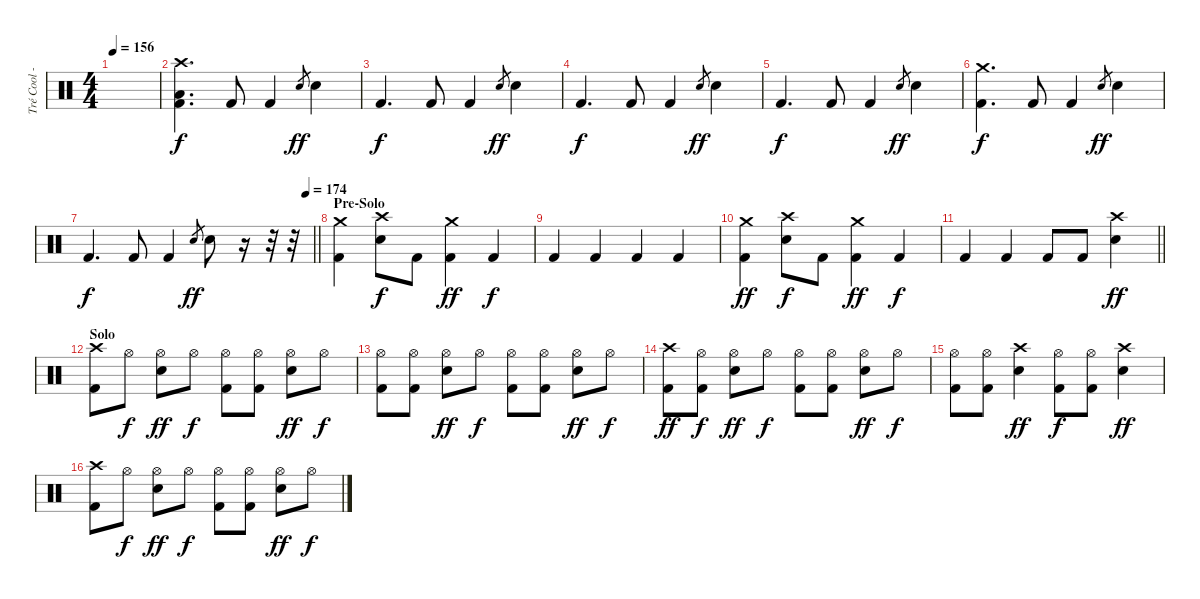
\track ("Tré Cool - Drums" "Tré Cool -") {instrument percussion}
\staff {score}
\articulation defaults
\ts (4 4)
\tempo 156
\clef neutral
\ks c
|
("Crash high (hit)" "Low Tom (hit)" "Kick (hit) 2").4{d} "Kick (hit) 2".8{dy f} "Kick (hit) 2".4 "Electric Snare (hit)".8{gr dy ff} "Electric Snare (hit)".4 |
"Kick (hit) 2".4{d dy f} "Kick (hit) 2".8 "Kick (hit) 2".4 "Electric Snare (hit)".8{gr dy ff} "Electric Snare (hit)".4 |
"Kick (hit) 2".4{d dy f} "Kick (hit) 2".8 "Kick (hit) 2".4 "Electric Snare (hit)".8{gr dy ff} "Electric Snare (hit)".4 |
"Kick (hit) 2".4{d dy f} "Kick (hit) 2".8 "Kick (hit) 2".4 "Electric Snare (hit)".8{gr dy ff} "Electric Snare (hit)".4 |
("Crash medium (hit)" "Kick (hit) 2").4{d dy f} "Kick (hit) 2".8 "Kick (hit) 2".4 "Electric Snare (hit)".8{gr dy ff} "Electric Snare (hit)".4 |
\tempo (174 0.96875)
\barLineRight lightlight "Kick (hit) 2".4{d dy f} "Kick (hit) 2".8 "Kick (hit) 2".4 "Electric Snare (hit)".8{gr dy ff} "Electric Snare (hit)".8
r.16 r.32 r.32 |
\section ("" "Pre-Solo")
("Crash medium (hit)" "Kick (hit) 2").4 ("Crash high (hit)" "Electric Snare (hit)").8{dy f} "Kick (hit) 2".8 ("Crash medium (hit)" "Kick (hit) 2").4{dy ff} "Kick (hit) 2".4{dy f} |
"Kick (hit) 2".4 "Kick (hit) 2".4 "Kick (hit) 2".4 "Kick (hit) 2".4 |
("Crash medium (hit)" "Kick (hit) 2").4{dy ff} ("Crash high (hit)" "Electric Snare (hit)").8{dy f} "Kick (hit) 2".8 ("Crash medium (hit)" "Kick (hit) 2").4{dy ff} "Kick (hit) 2".4{dy f} |
\barLineRight lightlight "Kick (hit) 2".4 "Kick (hit) 2".4 "Kick (hit) 2".8 "Kick (hit) 2".8
("Crash high (hit)" "Electric Snare (hit)").4{dy ff} |
\section ("" "Solo")
("Crash high (hit)" "Kick (hit) 2").8 "Hi-Hat (open)".8{dy f} ("Hi-Hat (open)" "Electric Snare (hit)").8{dy ff} "Hi-Hat (open)".8{dy f} ("Hi-Hat (open)" "Kick (hit) 2").8 ("Hi-Hat (open)" "Kick (hit) 2").8 ("Hi-Hat (open)" "Electric Snare (hit)").8{dy ff} "Hi-Hat (open)".8{dy f} |
("Hi-Hat (open)" "Kick (hit) 2").8 ("Hi-Hat (open)" "Kick (hit) 2").8 ("Hi-Hat (open)" "Electric Snare (hit)").8{dy ff} "Hi-Hat (open)".8{dy f} ("Hi-Hat (open)" "Kick (hit) 2").8 ("Hi-Hat (open)" "Kick (hit) 2").8 ("Hi-Hat (open)" "Electric Snare (hit)").8{dy ff} "Hi-Hat (open)".8{dy f} |
("Crash high (hit)" "Kick (hit) 2").8{dy ff} ("Hi-Hat (open)" "Kick (hit) 2").8{dy f} ("Hi-Hat (open)" "Electric Snare (hit)").8{dy ff} "Hi-Hat (open)".8{dy f} ("Hi-Hat (open)" "Kick (hit) 2").8 ("Hi-Hat (open)" "Kick (hit) 2").8 ("Hi-Hat (open)" "Electric Snare (hit)").8{dy ff} "Hi-Hat (open)".8{dy f} |
("Hi-Hat (open)" "Kick (hit) 2").8 ("Hi-Hat (open)" "Kick (hit) 2").8 ("Crash high (hit)" "Electric Snare (hit)").4{dy ff} ("Hi-Hat (open)" "Kick (hit) 2").8{dy f} ("Hi-Hat (open)" "Kick (hit) 2").8 ("Crash high (hit)" "Electric Snare (hit)").4{dy ff} |
("Crash high (hit)" "Kick (hit) 2").8 "Hi-Hat (open)".8{dy f} ("Hi-Hat (open)" "Electric Snare (hit)").8{dy ff} "Hi-Hat (open)".8{dy f} ("Hi-Hat (open)" "Kick (hit) 2").8 ("Hi-Hat (open)" "Kick (hit) 2").8 ("Hi-Hat (open)" "Electric Snare (hit)").8{dy ff} "Hi-Hat (open)".8{dy f}
